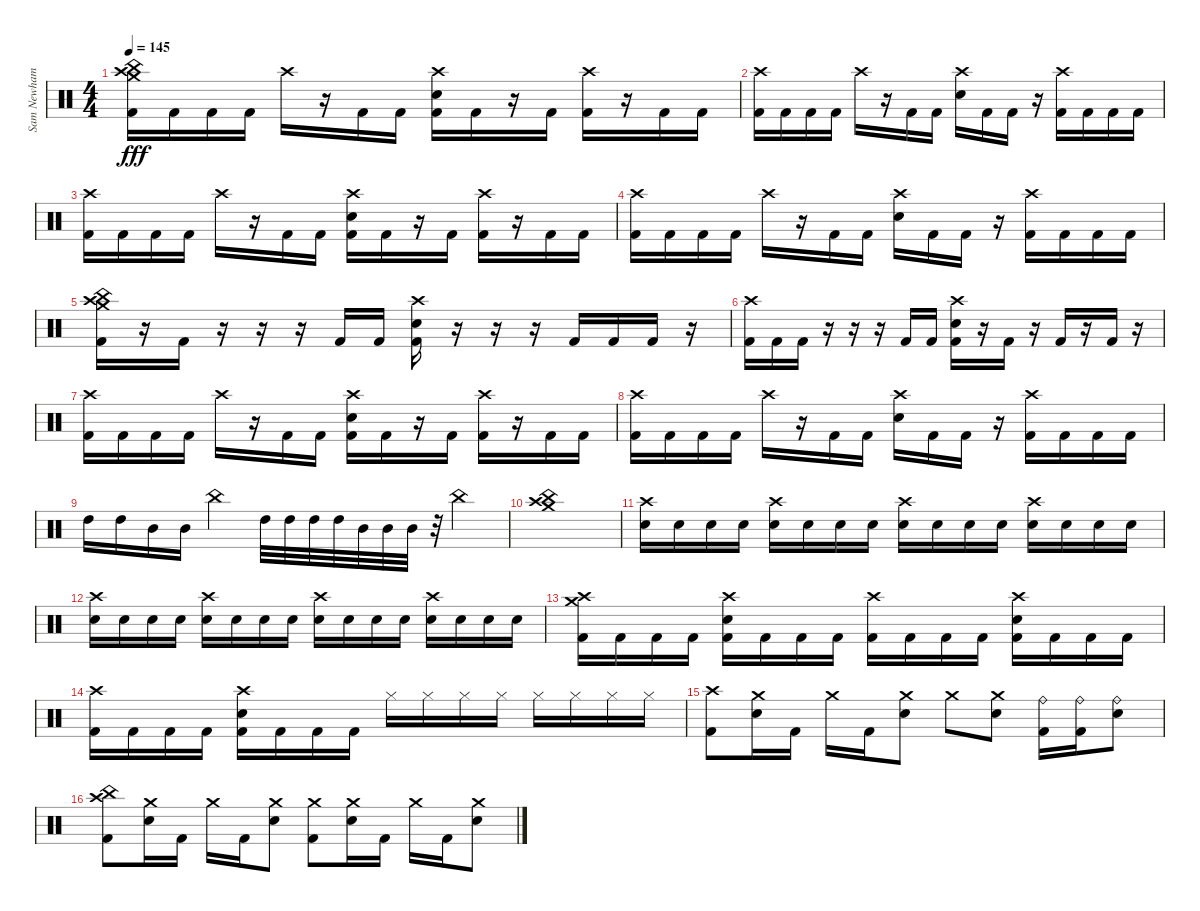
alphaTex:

\track ("Sam Newham" "Sam Newham") {instrument percussion}
\staff {score}
\articulation defaults
\ts (4 4)
\tempo 145
\clef neutral
\ks c
("Crash high (hit)" "Crash medium (hit)" "China (hit)" "Kick (hit) 2").16{dy fff} "Kick (hit) 2".16 "Kick (hit) 2".16 "Kick (hit) 2".16 "Crash high (hit)".16 r.16 "Kick (hit) 2".16 "Kick (hit) 2".16 ("Crash high (hit)" "Electric Snare (hit)" "Kick (hit) 2").16 "Kick (hit) 2".16 r.16 "Kick (hit) 2".16 ("Crash high (hit)" "Kick (hit) 2").16 r.16 "Kick (hit) 2".16 "Kick (hit) 2".16 |
("Crash high (hit)" "Kick (hit) 2").16 "Kick (hit) 2".16 "Kick (hit) 2".16 "Kick (hit) 2".16 "Crash high (hit)".16 r.16 "Kick (hit) 2".16 "Kick (hit) 2".16 ("Crash high (hit)" "Electric Snare (hit)").16 "Kick (hit) 2".16 "Kick (hit) 2".16 r.16 ("Crash high (hit)" "Kick (hit) 2").16 "Kick (hit) 2".16 "Kick (hit) 2".16 "Kick (hit) 2".16 |
("Crash high (hit)" "Kick (hit) 2").16 "Kick (hit) 2".16 "Kick (hit) 2".16 "Kick (hit) 2".16 "Crash high (hit)".16 r.16 "Kick (hit) 2".16 "Kick (hit) 2".16 ("Crash high (hit)" "Electric Snare (hit)" "Kick (hit) 2").16 "Kick (hit) 2".16 r.16 "Kick (hit) 2".16 ("Crash high (hit)" "Kick (hit) 2").16 r.16 "Kick (hit) 2".16 "Kick (hit) 2".16 |
("Crash high (hit)" "Kick (hit) 2").16 "Kick (hit) 2".16 "Kick (hit) 2".16 "Kick (hit) 2".16 "Crash high (hit)".16 r.16 "Kick (hit) 2".16 "Kick (hit) 2".16 ("Crash high (hit)" "Electric Snare (hit)").16 "Kick (hit) 2".16 "Kick (hit) 2".16 r.16 ("Crash high (hit)" "Kick (hit) 2").16 "Kick (hit) 2".16 "Kick (hit) 2".16 "Kick (hit) 2".16 |
("Crash high (hit)" "Crash medium (hit)" "China (hit)" "Kick (hit) 2").16 r.16 "Kick (hit) 2".16 r.16 r.16 r.16 "Kick (hit) 2".16 "Kick (hit) 2".16 ("Crash high (hit)" "Electric Snare (hit)" "Kick (hit) 2").16 r.16 r.16 r.16 "Kick (hit) 2".16 "Kick (hit) 2".16 "Kick (hit) 2".16 r.16 |
("Crash high (hit)" "Kick (hit) 2").16 "Kick (hit) 2".16 "Kick (hit) 2".16 r.16 r.16 r.16 "Kick (hit) 2".16 "Kick (hit) 2".16 ("Crash high (hit)" "Electric Snare (hit)" "Kick (hit) 2").16 r.16 "Kick (hit) 2".16 r.16 "Kick (hit) 2".16 r.16 "Kick (hit) 2".16 r.16 |
("Crash high (hit)" "Kick (hit) 2").16 "Kick (hit) 2".16 "Kick (hit) 2".16 "Kick (hit) 2".16 "Crash high (hit)".16 r.16 "Kick (hit) 2".16 "Kick (hit) 2".16 ("Crash high (hit)" "Electric Snare (hit)" "Kick (hit) 2").16 "Kick (hit) 2".16 r.16 "Kick (hit) 2".16 ("Crash high (hit)" "Kick (hit) 2").16 r.16 "Kick (hit) 2".16 "Kick (hit) 2".16 |
("Crash high (hit)" "Kick (hit) 2").16 "Kick (hit) 2".16 "Kick (hit) 2".16 "Kick (hit) 2".16 "Crash high (hit)".16 r.16 "Kick (hit) 2".16 "Kick (hit) 2".16 ("Crash high (hit)" "Electric Snare (hit)").16 "Kick (hit) 2".16 "Kick (hit) 2".16 r.16 ("Crash high (hit)" "Kick (hit) 2").16 "Kick (hit) 2".16 "Kick (hit) 2".16 "Kick (hit) 2".16 |
"High Tom (hit)".16 "High Tom (hit)".16 "Mid Tom (hit)".16 "Mid Tom (hit)".16 "China (hit)".4 "High Tom (hit)".32 "High Tom (hit)".32 "High Tom (hit)".32 "High Tom (hit)".32 "Mid Tom (hit)".32 "Mid Tom (hit)".32 "Mid Tom (hit)".32 r.32 "China (hit)".4 |
("China (hit)" "Crash medium (hit)" "Crash high (hit)").1 |
("Crash high (hit)" "Electric Snare (hit)").16 "Electric Snare (hit)".16 "Electric Snare (hit)".16 "Electric Snare (hit)".16 ("Crash high (hit)" "Electric Snare (hit)").16 "Electric Snare (hit)".16 "Electric Snare (hit)".16 "Electric Snare (hit)".16 ("Crash high (hit)" "Electric Snare (hit)").16 "Electric Snare (hit)".16 "Electric Snare (hit)".16 "Electric Snare (hit)".16 ("Crash high (hit)" "Electric Snare (hit)").16 "Electric Snare (hit)".16 "Electric Snare (hit)".16 "Electric Snare (hit)".16 |
("Crash high (hit)" "Electric Snare (hit)").16 "Electric Snare (hit)".16 "Electric Snare (hit)".16 "Electric Snare (hit)".16 ("Crash high (hit)" "Electric Snare (hit)").16 "Electric Snare (hit)".16 "Electric Snare (hit)".16 "Electric Snare (hit)".16 ("Crash high (hit)" "Electric Snare (hit)").16 "Electric Snare (hit)".16 "Electric Snare (hit)".16 "Electric Snare (hit)".16 ("Crash high (hit)" "Electric Snare (hit)").16 "Electric Snare (hit)".16 "Electric Snare (hit)".16 "Electric Snare (hit)".16 |
("Crash medium (hit)" "Crash high (hit)" "Kick (hit) 2").16 "Kick (hit) 2".16 "Kick (hit) 2".16 "Kick (hit) 2".16 ("Crash high (hit)" "Electric Snare (hit)" "Kick (hit) 2").16 "Kick (hit) 2".16 "Kick (hit) 2".16 "Kick (hit) 2".16 ("Crash high (hit)" "Kick (hit) 2").16 "Kick (hit) 2".16 "Kick (hit) 2".16 "Kick (hit) 2".16 ("Crash high (hit)" "Electric Snare (hit)" "Kick (hit) 2").16 "Kick (hit) 2".16 "Kick (hit) 2".16 "Kick (hit) 2".16 |
("Crash high (hit)" "Kick (hit) 2").16 "Kick (hit) 2".16 "Kick (hit) 2".16 "Kick (hit) 2".16 ("Crash high (hit)" "Electric Snare (hit)" "Kick (hit) 2").16 "Kick (hit) 2".16 "Kick (hit) 2".16 "Kick (hit) 2".16 "Hi-Hat (closed)".16 "Hi-Hat (closed)".16 "Hi-Hat (closed)".16 "Hi-Hat (closed)".16 "Hi-Hat (closed)".16 "Hi-Hat (closed)".16 "Hi-Hat (closed)".16 "Hi-Hat (closed)".16 |
("Crash high (hit)" "Kick (hit) 2").8 ("Crash medium (hit)" "Electric Snare (hit)").16 "Kick (hit) 2".16 "Crash medium (hit)".16 "Kick (hit) 2".16 ("Crash medium (hit)" "Electric Snare (hit)").8 "Crash medium (hit)".8 ("Crash medium (hit)" "Electric Snare (hit)").8 ("Ride (bell)" "Kick (hit) 2").16 ("Ride (bell)" "Kick (hit) 2").16 ("Ride (bell)" "Electric Snare (hit)").8 |
("China (hit)" "Crash high (hit)" "Kick (hit) 2").8 ("Crash medium (hit)" "Electric Snare (hit)").16 "Kick (hit) 2".16 "Crash medium (hit)".16 "Kick (hit) 2".16 ("Crash medium (hit)" "Electric Snare (hit)").8 ("Crash medium (hit)" "Kick (hit) 2").8 ("Crash medium (hit)" "Electric Snare (hit)").16 "Kick (hit) 2".16 "Crash medium (hit)".16 "Kick (hit) 2".16 ("Crash medium (hit)" "Electric Snare (hit)").8
